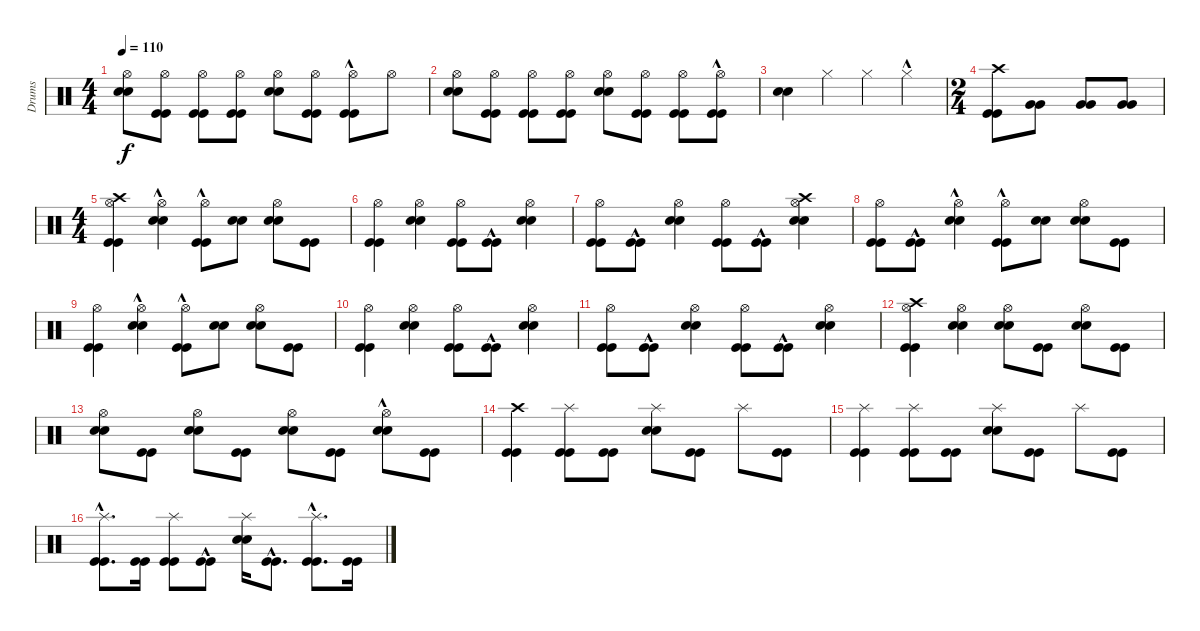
\track ("Drums" "Drums") {instrument percussion}
\staff {score}
\articulation defaults
\ts (4 4)
\tempo 110
\clef neutral
\ks c
("Snare (hit) 2" "Snare (hit) 2" "Hi-Hat (open)").8{dy f} ("Kick (hit)" "Kick (hit)" "Hi-Hat (open)").8 ("Kick (hit)" "Kick (hit)" "Hi-Hat (open)").8 ("Kick (hit)" "Kick (hit)" "Hi-Hat (open)").8 ("Snare (hit) 2" "Snare (hit) 2" "Hi-Hat (open)").8 ("Kick (hit)" "Kick (hit)" "Hi-Hat (open)").8 ("Kick (hit)"{hac} "Kick (hit)"{hac} "Hi-Hat (open)").8 "Hi-Hat (open)".8 |
("Snare (hit) 2" "Snare (hit) 2" "Hi-Hat (open)").8 ("Kick (hit)" "Kick (hit)" "Hi-Hat (open)").8 ("Kick (hit)" "Kick (hit)" "Hi-Hat (open)").8 ("Kick (hit)" "Kick (hit)" "Hi-Hat (open)").8 ("Snare (hit) 2" "Snare (hit) 2" "Hi-Hat (open)").8 ("Kick (hit)" "Kick (hit)" "Hi-Hat (open)").8 ("Kick (hit)" "Kick (hit)" "Hi-Hat (open)").8 ("Kick (hit)" "Kick (hit)" "Hi-Hat (open)"{hac}).8 |
("Snare (hit) 2" "Snare (hit) 2").4 "Hi-Hat (closed)".4 "Hi-Hat (closed)".4 "Hi-Hat (closed)"{hac}.4 |
\ts (2 4)
("Kick (hit)" "Kick (hit)" "Crash high (hit)").8 ("Very Low Tom (hit)" "Very Low Tom (hit)").8 ("Very Low Tom (hit)" "Very Low Tom (hit)").8 ("Very Low Tom (hit)" "Very Low Tom (hit)").8 |
\ts (4 4)
("Kick (hit)" "Kick (hit)" "Hi-Hat (open)" "Crash high (hit)").4 ("Snare (hit) 2"{hac} "Snare (hit) 2"{hac} "Hi-Hat (open)").4 ("Kick (hit)"{hac} "Kick (hit)"{hac} "Hi-Hat (open)").8 ("Snare (hit) 2" "Snare (hit) 2").8 ("Snare (hit) 2" "Snare (hit) 2" "Hi-Hat (open)").8 ("Kick (hit)" "Kick (hit)").8 |
("Kick (hit)" "Kick (hit)" "Hi-Hat (open)").4 ("Snare (hit) 2" "Snare (hit) 2" "Hi-Hat (open)").4 ("Kick (hit)" "Kick (hit)" "Hi-Hat (open)").8 ("Kick (hit)"{hac} "Kick (hit)"{hac}).8 ("Snare (hit) 2" "Snare (hit) 2" "Hi-Hat (open)").4 |
("Kick (hit)" "Kick (hit)" "Hi-Hat (open)").8 ("Kick (hit)"{hac} "Kick (hit)"{hac}).8 ("Snare (hit) 2" "Snare (hit) 2" "Hi-Hat (open)").4 ("Kick (hit)" "Kick (hit)" "Hi-Hat (open)").8 ("Kick (hit)"{hac} "Kick (hit)"{hac}).8 ("Snare (hit) 2" "Snare (hit) 2" "Hi-Hat (open)" "Crash high (hit)").4 |
("Kick (hit)" "Kick (hit)" "Hi-Hat (open)").8 ("Kick (hit)"{hac} "Kick (hit)"{hac}).8 ("Snare (hit) 2"{hac} "Snare (hit) 2"{hac} "Hi-Hat (open)").4 ("Kick (hit)"{hac} "Kick (hit)"{hac} "Hi-Hat (open)").8 ("Snare (hit) 2" "Snare (hit) 2").8 ("Snare (hit) 2" "Snare (hit) 2" "Hi-Hat (open)").8 ("Kick (hit)" "Kick (hit)").8 |
("Kick (hit)" "Kick (hit)" "Hi-Hat (open)").4 ("Snare (hit) 2"{hac} "Snare (hit) 2"{hac} "Hi-Hat (open)").4 ("Kick (hit)"{hac} "Kick (hit)"{hac} "Hi-Hat (open)").8 ("Snare (hit) 2" "Snare (hit) 2").8 ("Snare (hit) 2" "Snare (hit) 2" "Hi-Hat (open)").8 ("Kick (hit)" "Kick (hit)").8 |
("Kick (hit)" "Kick (hit)" "Hi-Hat (open)").4 ("Snare (hit) 2" "Snare (hit) 2" "Hi-Hat (open)").4 ("Kick (hit)" "Kick (hit)" "Hi-Hat (open)").8 ("Kick (hit)"{hac} "Kick (hit)"{hac}).8 ("Snare (hit) 2" "Snare (hit) 2" "Hi-Hat (open)").4 |
("Kick (hit)" "Kick (hit)" "Hi-Hat (open)").8 ("Kick (hit)"{hac} "Kick (hit)"{hac}).8 ("Snare (hit) 2" "Snare (hit) 2" "Hi-Hat (open)").4 ("Kick (hit)" "Kick (hit)" "Hi-Hat (open)").8 ("Kick (hit)"{hac} "Kick (hit)"{hac}).8 ("Snare (hit) 2" "Snare (hit) 2" "Hi-Hat (open)").4 |
("Kick (hit)" "Kick (hit)" "Hi-Hat (open)" "Crash high (hit)").4 ("Snare (hit) 2" "Snare (hit) 2" "Hi-Hat (open)").4 ("Snare (hit) 2" "Snare (hit) 2" "Hi-Hat (open)").8 ("Kick (hit)" "Kick (hit)").8 ("Snare (hit) 2" "Snare (hit) 2" "Hi-Hat (open)").8 ("Kick (hit)" "Kick (hit)").8 |
("Snare (hit) 2" "Snare (hit) 2" "Hi-Hat (open)").8 ("Kick (hit)" "Kick (hit)").8 ("Snare (hit) 2" "Snare (hit) 2" "Hi-Hat (open)").8 ("Kick (hit)" "Kick (hit)").8 ("Snare (hit) 2" "Snare (hit) 2" "Hi-Hat (open)").8 ("Kick (hit)" "Kick (hit)").8 ("Snare (hit) 2"{hac} "Snare (hit) 2"{hac} "Hi-Hat (open)").8 ("Kick (hit)" "Kick (hit)").8 |
("Kick (hit)" "Kick (hit)" "Crash high (hit)").4 ("Kick (hit)" "Kick (hit)" "Splash (hit)").8 ("Kick (hit)" "Kick (hit)").8 ("Snare (hit) 2" "Snare (hit) 2" "Splash (hit)").8 ("Kick (hit)" "Kick (hit)").8 "Splash (hit)".8 ("Kick (hit)" "Kick (hit)").8 |
("Kick (hit)" "Kick (hit)" "Splash (hit)").4 ("Kick (hit)" "Kick (hit)" "Splash (hit)").8 ("Kick (hit)" "Kick (hit)").8 ("Snare (hit) 2" "Snare (hit) 2" "Splash (hit)").8 ("Kick (hit)" "Kick (hit)").8 "Splash (hit)".8 ("Kick (hit)" "Kick (hit)").8 |
("Kick (hit)"{hac} "Kick (hit)"{hac} "Splash (hit)").8{d} ("Kick (hit)" "Kick (hit)").16 ("Kick (hit)" "Kick (hit)" "Splash (hit)").8 ("Kick (hit)"{hac} "Kick (hit)"{hac}).8 ("Snare (hit) 2" "Snare (hit) 2" "Splash (hit)").16 ("Kick (hit)"{hac} "Kick (hit)"{hac}).8{d} ("Kick (hit)"{hac} "Kick (hit)"{hac} "Splash (hit)").8{d} ("Kick (hit)" "Kick (hit)").16
